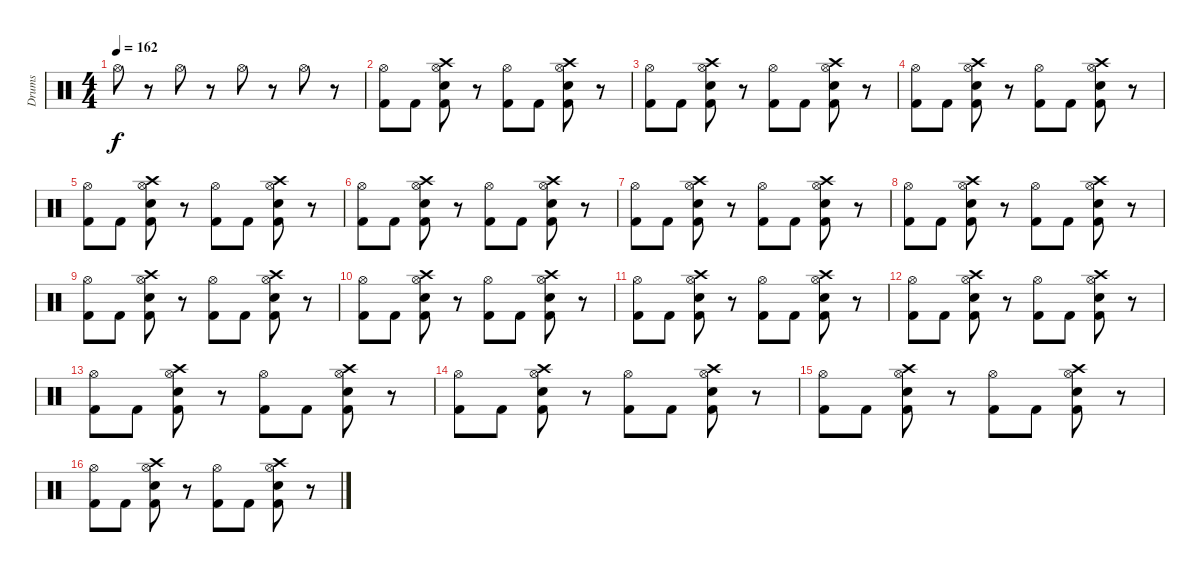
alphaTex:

\track ("Drums" "Drums") {instrument percussion}
\staff {score}
\articulation defaults
\ts (4 4)
\tempo 162
\clef neutral
\ks c "Hi-Hat (open)".8{dy f}
r.8 "Hi-Hat (open)".8 r.8 "Hi-Hat (open)".8 r.8 "Hi-Hat (open)".8 r.8 |
("Hi-Hat (open)" "Kick (hit) 2").8 "Kick (hit) 2".8 ("Hi-Hat (open)" "Crash high (hit)" "Snare (hit) 2" "Kick (hit) 2").8 r.8 ("Hi-Hat (open)" "Kick (hit) 2").8 "Kick (hit) 2".8 ("Hi-Hat (open)" "Crash high (hit)" "Snare (hit) 2" "Kick (hit) 2").8 r.8 |
("Hi-Hat (open)" "Kick (hit) 2").8 "Kick (hit) 2".8 ("Hi-Hat (open)" "Crash high (hit)" "Snare (hit) 2" "Kick (hit) 2").8 r.8 ("Hi-Hat (open)" "Kick (hit) 2").8 "Kick (hit) 2".8 ("Hi-Hat (open)" "Crash high (hit)" "Snare (hit) 2" "Kick (hit) 2").8 r.8 |
("Hi-Hat (open)" "Kick (hit) 2").8 "Kick (hit) 2".8 ("Hi-Hat (open)" "Crash high (hit)" "Snare (hit) 2" "Kick (hit) 2").8 r.8 ("Hi-Hat (open)" "Kick (hit) 2").8 "Kick (hit) 2".8 ("Hi-Hat (open)" "Crash high (hit)" "Snare (hit) 2" "Kick (hit) 2").8 r.8 |
("Hi-Hat (open)" "Kick (hit) 2").8 "Kick (hit) 2".8 ("Hi-Hat (open)" "Crash high (hit)" "Snare (hit) 2" "Kick (hit) 2").8 r.8 ("Hi-Hat (open)" "Kick (hit) 2").8 "Kick (hit) 2".8 ("Hi-Hat (open)" "Crash high (hit)" "Snare (hit) 2" "Kick (hit) 2").8 r.8 |
("Hi-Hat (open)" "Kick (hit) 2").8 "Kick (hit) 2".8 ("Hi-Hat (open)" "Crash high (hit)" "Snare (hit) 2" "Kick (hit) 2").8 r.8 ("Hi-Hat (open)" "Kick (hit) 2").8 "Kick (hit) 2".8 ("Hi-Hat (open)" "Crash high (hit)" "Snare (hit) 2" "Kick (hit) 2").8 r.8 |
("Hi-Hat (open)" "Kick (hit) 2").8 "Kick (hit) 2".8 ("Hi-Hat (open)" "Crash high (hit)" "Snare (hit) 2" "Kick (hit) 2").8 r.8 ("Hi-Hat (open)" "Kick (hit) 2").8 "Kick (hit) 2".8 ("Hi-Hat (open)" "Crash high (hit)" "Snare (hit) 2" "Kick (hit) 2").8 r.8 |
("Hi-Hat (open)" "Kick (hit) 2").8 "Kick (hit) 2".8 ("Hi-Hat (open)" "Crash high (hit)" "Snare (hit) 2" "Kick (hit) 2").8 r.8 ("Hi-Hat (open)" "Kick (hit) 2").8 "Kick (hit) 2".8 ("Hi-Hat (open)" "Crash high (hit)" "Snare (hit) 2" "Kick (hit) 2").8 r.8 |
("Hi-Hat (open)" "Kick (hit) 2").8 "Kick (hit) 2".8 ("Hi-Hat (open)" "Crash high (hit)" "Snare (hit) 2" "Kick (hit) 2").8 r.8 ("Hi-Hat (open)" "Kick (hit) 2").8 "Kick (hit) 2".8 ("Hi-Hat (open)" "Crash high (hit)" "Snare (hit) 2" "Kick (hit) 2").8 r.8 |
("Hi-Hat (open)" "Kick (hit) 2").8 "Kick (hit) 2".8 ("Hi-Hat (open)" "Crash high (hit)" "Snare (hit) 2" "Kick (hit) 2").8 r.8 ("Hi-Hat (open)" "Kick (hit) 2").8 "Kick (hit) 2".8 ("Hi-Hat (open)" "Crash high (hit)" "Snare (hit) 2" "Kick (hit) 2").8 r.8 |
("Hi-Hat (open)" "Kick (hit) 2").8 "Kick (hit) 2".8 ("Hi-Hat (open)" "Crash high (hit)" "Snare (hit) 2" "Kick (hit) 2").8 r.8 ("Hi-Hat (open)" "Kick (hit) 2").8 "Kick (hit) 2".8 ("Hi-Hat (open)" "Crash high (hit)" "Snare (hit) 2" "Kick (hit) 2").8 r.8 |
("Hi-Hat (open)" "Kick (hit) 2").8 "Kick (hit) 2".8 ("Hi-Hat (open)" "Crash high (hit)" "Snare (hit) 2" "Kick (hit) 2").8 r.8 ("Hi-Hat (open)" "Kick (hit) 2").8 "Kick (hit) 2".8 ("Hi-Hat (open)" "Crash high (hit)" "Snare (hit) 2" "Kick (hit) 2").8 r.8 |
("Hi-Hat (open)" "Kick (hit) 2").8 "Kick (hit) 2".8 ("Hi-Hat (open)" "Crash high (hit)" "Snare (hit) 2" "Kick (hit) 2").8 r.8 ("Hi-Hat (open)" "Kick (hit) 2").8 "Kick (hit) 2".8 ("Hi-Hat (open)" "Crash high (hit)" "Snare (hit) 2" "Kick (hit) 2").8 r.8 |
("Hi-Hat (open)" "Kick (hit) 2").8 "Kick (hit) 2".8 ("Hi-Hat (open)" "Crash high (hit)" "Snare (hit) 2" "Kick (hit) 2").8 r.8 ("Hi-Hat (open)" "Kick (hit) 2").8 "Kick (hit) 2".8 ("Hi-Hat (open)" "Crash high (hit)" "Snare (hit) 2" "Kick (hit) 2").8 r.8 |
("Hi-Hat (open)" "Kick (hit) 2").8 "Kick (hit) 2".8 ("Hi-Hat (open)" "Crash high (hit)" "Snare (hit) 2" "Kick (hit) 2").8 r.8 ("Hi-Hat (open)" "Kick (hit) 2").8 "Kick (hit) 2".8 ("Hi-Hat (open)" "Crash high (hit)" "Snare (hit) 2" "Kick (hit) 2").8 r.8 |
("Hi-Hat (open)" "Kick (hit) 2").8 "Kick (hit) 2".8 ("Hi-Hat (open)" "Crash high (hit)" "Snare (hit) 2" "Kick (hit) 2").8 r.8 ("Hi-Hat (open)" "Kick (hit) 2").8 "Kick (hit) 2".8 ("Hi-Hat (open)" "Crash high (hit)" "Snare (hit) 2" "Kick (hit) 2").8 r.8
